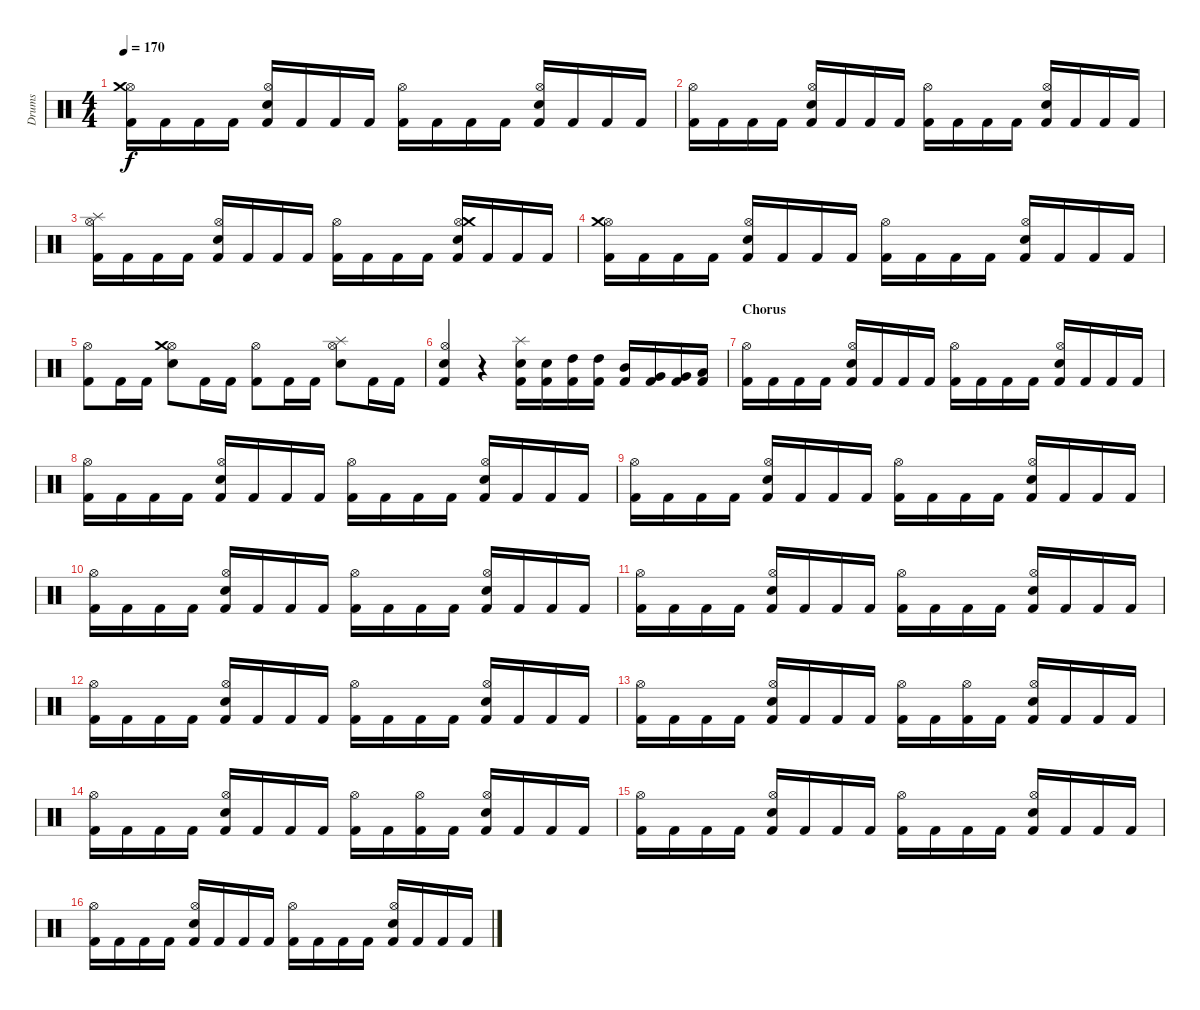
\track ("Drums" "Drums") {instrument percussion}
\staff {score}
\articulation defaults
\ts (4 4)
\section ("" "")
\tempo 170
\clef neutral
\ks c
("Kick (hit) 2" "Hi-Hat (open)" "Crash medium (hit)").16{dy f} "Kick (hit) 2".16 "Kick (hit) 2".16 "Kick (hit) 2".16 ("Kick (hit) 2" "Snare (hit) 2" "Hi-Hat (open)").16 "Kick (hit) 2".16 "Kick (hit) 2".16 "Kick (hit) 2".16 ("Kick (hit) 2" "Hi-Hat (open)").16 "Kick (hit) 2".16 "Kick (hit) 2".16 "Kick (hit) 2".16 ("Kick (hit) 2" "Snare (hit) 2" "Hi-Hat (open)").16 "Kick (hit) 2".16 "Kick (hit) 2".16 "Kick (hit) 2".16 |
("Kick (hit) 2" "Hi-Hat (open)").16 "Kick (hit) 2".16 "Kick (hit) 2".16 "Kick (hit) 2".16 ("Kick (hit) 2" "Snare (hit) 2" "Hi-Hat (open)").16 "Kick (hit) 2".16 "Kick (hit) 2".16 "Kick (hit) 2".16 ("Kick (hit) 2" "Hi-Hat (open)").16 "Kick (hit) 2".16 "Kick (hit) 2".16 "Kick (hit) 2".16 ("Kick (hit) 2" "Snare (hit) 2" "Hi-Hat (open)").16 "Kick (hit) 2".16 "Kick (hit) 2".16 "Kick (hit) 2".16 |
("Kick (hit) 2" "Hi-Hat (open)" "Splash (hit)").16 "Kick (hit) 2".16 "Kick (hit) 2".16 "Kick (hit) 2".16 ("Kick (hit) 2" "Snare (hit) 2" "Hi-Hat (open)").16 "Kick (hit) 2".16 "Kick (hit) 2".16 "Kick (hit) 2".16 ("Kick (hit) 2" "Hi-Hat (open)").16 "Kick (hit) 2".16 "Kick (hit) 2".16 "Kick (hit) 2".16 ("Kick (hit) 2" "Snare (hit) 2" "Hi-Hat (open)" "Crash medium (hit)").16 "Kick (hit) 2".16 "Kick (hit) 2".16 "Kick (hit) 2".16 |
("Kick (hit) 2" "Hi-Hat (open)" "Crash medium (hit)").16 "Kick (hit) 2".16 "Kick (hit) 2".16 "Kick (hit) 2".16 ("Kick (hit) 2" "Snare (hit) 2" "Hi-Hat (open)").16 "Kick (hit) 2".16 "Kick (hit) 2".16 "Kick (hit) 2".16 ("Kick (hit) 2" "Hi-Hat (open)").16 "Kick (hit) 2".16 "Kick (hit) 2".16 "Kick (hit) 2".16 ("Kick (hit) 2" "Snare (hit) 2" "Hi-Hat (open)").16 "Kick (hit) 2".16 "Kick (hit) 2".16 "Kick (hit) 2".16 |
("Kick (hit) 2" "Hi-Hat (open)").8 "Kick (hit) 2".16 "Kick (hit) 2".16 ("Snare (hit) 2" "Hi-Hat (open)" "Crash medium (hit)").8 "Kick (hit) 2".16 "Kick (hit) 2".16 ("Kick (hit) 2" "Hi-Hat (open)").8 "Kick (hit) 2".16 "Kick (hit) 2".16 ("Snare (hit) 2" "Hi-Hat (open)" "Splash (hit)").8 "Kick (hit) 2".16 "Kick (hit) 2".16 |
("Kick (hit) 2" "Snare (hit) 2" "Hi-Hat (open)").4 r.4 ("Kick (hit) 2" "Snare (hit) 2" "Splash (hit)").16 ("Kick (hit) 2" "Snare (hit) 2").16 ("Kick (hit) 2" "High Tom (hit)").16 ("Kick (hit) 2" "High Tom (hit)").16 ("Kick (hit) 2" "Mid Tom (hit)").16 ("Kick (hit) 2" "Very Low Tom (hit)").16 ("Kick (hit) 2" "Very Low Tom (hit)").16 ("Kick (hit) 2" "Low Floor Tom (hit)").16 |
\section ("" "Chorus")
("Kick (hit) 2" "Hi-Hat (open)").16 "Kick (hit) 2".16 "Kick (hit) 2".16 "Kick (hit) 2".16 ("Kick (hit) 2" "Snare (hit) 2" "Hi-Hat (open)").16 "Kick (hit) 2".16 "Kick (hit) 2".16 "Kick (hit) 2".16 ("Kick (hit) 2" "Hi-Hat (open)").16 "Kick (hit) 2".16 "Kick (hit) 2".16 "Kick (hit) 2".16 ("Kick (hit) 2" "Snare (hit) 2" "Hi-Hat (open)").16 "Kick (hit) 2".16 "Kick (hit) 2".16 "Kick (hit) 2".16 |
("Kick (hit) 2" "Hi-Hat (open)").16 "Kick (hit) 2".16 "Kick (hit) 2".16 "Kick (hit) 2".16 ("Kick (hit) 2" "Snare (hit) 2" "Hi-Hat (open)").16 "Kick (hit) 2".16 "Kick (hit) 2".16 "Kick (hit) 2".16 ("Kick (hit) 2" "Hi-Hat (open)").16 "Kick (hit) 2".16 "Kick (hit) 2".16 "Kick (hit) 2".16 ("Kick (hit) 2" "Snare (hit) 2" "Hi-Hat (open)").16 "Kick (hit) 2".16 "Kick (hit) 2".16 "Kick (hit) 2".16 |
("Kick (hit) 2" "Hi-Hat (open)").16 "Kick (hit) 2".16 "Kick (hit) 2".16 "Kick (hit) 2".16 ("Kick (hit) 2" "Snare (hit) 2" "Hi-Hat (open)").16 "Kick (hit) 2".16 "Kick (hit) 2".16 "Kick (hit) 2".16 ("Kick (hit) 2" "Hi-Hat (open)").16 "Kick (hit) 2".16 "Kick (hit) 2".16 "Kick (hit) 2".16 ("Kick (hit) 2" "Snare (hit) 2" "Hi-Hat (open)").16 "Kick (hit) 2".16 "Kick (hit) 2".16 "Kick (hit) 2".16 |
("Kick (hit) 2" "Hi-Hat (open)").16 "Kick (hit) 2".16 "Kick (hit) 2".16 "Kick (hit) 2".16 ("Kick (hit) 2" "Snare (hit) 2" "Hi-Hat (open)").16 "Kick (hit) 2".16 "Kick (hit) 2".16 "Kick (hit) 2".16 ("Kick (hit) 2" "Hi-Hat (open)").16 "Kick (hit) 2".16 "Kick (hit) 2".16 "Kick (hit) 2".16 ("Kick (hit) 2" "Snare (hit) 2" "Hi-Hat (open)").16 "Kick (hit) 2".16 "Kick (hit) 2".16 "Kick (hit) 2".16 |
("Kick (hit) 2" "Hi-Hat (open)").16 "Kick (hit) 2".16 "Kick (hit) 2".16 "Kick (hit) 2".16 ("Kick (hit) 2" "Snare (hit) 2" "Hi-Hat (open)").16 "Kick (hit) 2".16 "Kick (hit) 2".16 "Kick (hit) 2".16 ("Kick (hit) 2" "Hi-Hat (open)").16 "Kick (hit) 2".16 "Kick (hit) 2".16 "Kick (hit) 2".16 ("Kick (hit) 2" "Snare (hit) 2" "Hi-Hat (open)").16 "Kick (hit) 2".16 "Kick (hit) 2".16 "Kick (hit) 2".16 |
("Kick (hit) 2" "Hi-Hat (open)").16 "Kick (hit) 2".16 "Kick (hit) 2".16 "Kick (hit) 2".16 ("Kick (hit) 2" "Snare (hit) 2" "Hi-Hat (open)").16 "Kick (hit) 2".16 "Kick (hit) 2".16 "Kick (hit) 2".16 ("Kick (hit) 2" "Hi-Hat (open)").16 "Kick (hit) 2".16 "Kick (hit) 2".16 "Kick (hit) 2".16 ("Kick (hit) 2" "Snare (hit) 2" "Hi-Hat (open)").16 "Kick (hit) 2".16 "Kick (hit) 2".16 "Kick (hit) 2".16 |
("Kick (hit) 2" "Hi-Hat (open)").16 "Kick (hit) 2".16 "Kick (hit) 2".16 "Kick (hit) 2".16 ("Kick (hit) 2" "Snare (hit) 2" "Hi-Hat (open)").16 "Kick (hit) 2".16 "Kick (hit) 2".16 "Kick (hit) 2".16 ("Kick (hit) 2" "Hi-Hat (open)").16 "Kick (hit) 2".16 ("Kick (hit) 2" "Hi-Hat (open)").16 "Kick (hit) 2".16 ("Kick (hit) 2" "Snare (hit) 2" "Hi-Hat (open)").16 "Kick (hit) 2".16 "Kick (hit) 2".16 "Kick (hit) 2".16 |
("Kick (hit) 2" "Hi-Hat (open)").16 "Kick (hit) 2".16 "Kick (hit) 2".16 "Kick (hit) 2".16 ("Kick (hit) 2" "Snare (hit) 2" "Hi-Hat (open)").16 "Kick (hit) 2".16 "Kick (hit) 2".16 "Kick (hit) 2".16 ("Kick (hit) 2" "Hi-Hat (open)").16 "Kick (hit) 2".16 ("Kick (hit) 2" "Hi-Hat (open)").16 "Kick (hit) 2".16 ("Kick (hit) 2" "Snare (hit) 2" "Hi-Hat (open)").16 "Kick (hit) 2".16 "Kick (hit) 2".16 "Kick (hit) 2".16 |
("Kick (hit) 2" "Hi-Hat (open)").16 "Kick (hit) 2".16 "Kick (hit) 2".16 "Kick (hit) 2".16 ("Kick (hit) 2" "Snare (hit) 2" "Hi-Hat (open)").16 "Kick (hit) 2".16 "Kick (hit) 2".16 "Kick (hit) 2".16 ("Kick (hit) 2" "Hi-Hat (open)").16 "Kick (hit) 2".16 "Kick (hit) 2".16 "Kick (hit) 2".16 ("Kick (hit) 2" "Snare (hit) 2" "Hi-Hat (open)").16 "Kick (hit) 2".16 "Kick (hit) 2".16 "Kick (hit) 2".16 |
("Kick (hit) 2" "Hi-Hat (open)").16 "Kick (hit) 2".16 "Kick (hit) 2".16 "Kick (hit) 2".16 ("Kick (hit) 2" "Snare (hit) 2" "Hi-Hat (open)").16 "Kick (hit) 2".16 "Kick (hit) 2".16 "Kick (hit) 2".16 ("Kick (hit) 2" "Hi-Hat (open)").16 "Kick (hit) 2".16 "Kick (hit) 2".16 "Kick (hit) 2".16 ("Kick (hit) 2" "Snare (hit) 2" "Hi-Hat (open)").16 "Kick (hit) 2".16 "Kick (hit) 2".16 "Kick (hit) 2".16
